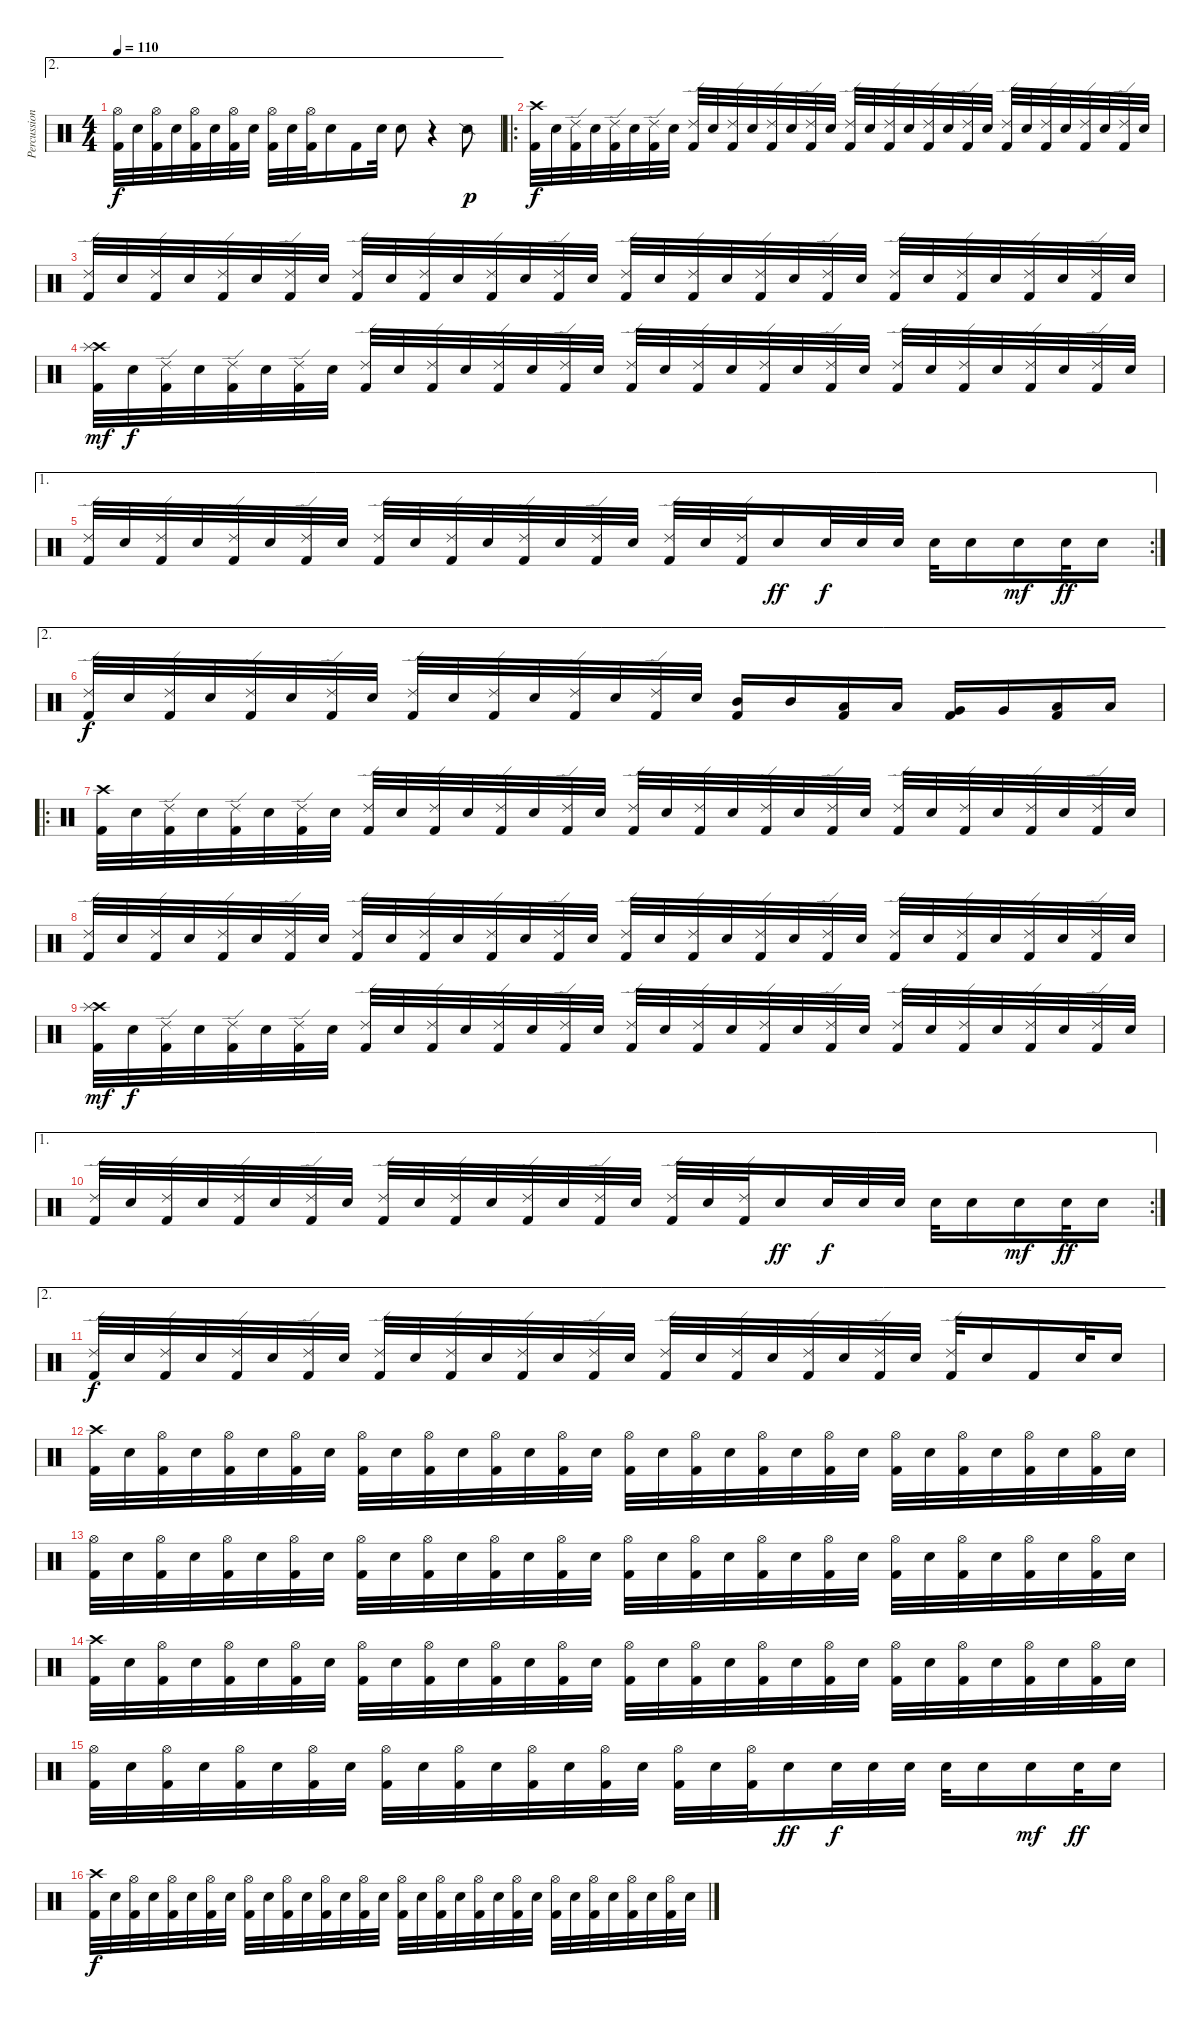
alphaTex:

\track ("Percussion" "Percussion") {instrument percussion}
\staff {score}
\articulation defaults
\ae 2
\ts (4 4)
\tempo 110
\clef neutral
\ks c
("Hi-Hat (open)" "Kick (hit) 2").32{dy f} "Snare (hit) 2".32 ("Hi-Hat (open)" "Kick (hit) 2").32 "Snare (hit) 2".32 ("Hi-Hat (open)" "Kick (hit) 2").32 "Snare (hit) 2".32 ("Hi-Hat (open)" "Kick (hit) 2").32 "Snare (hit) 2".32 ("Hi-Hat (open)" "Kick (hit) 2").32 "Snare (hit) 2".32 ("Hi-Hat (open)" "Kick (hit) 2").32 "Snare (hit) 2".16 "Kick (hit) 2".16 "Snare (hit) 2".32 "Snare (hit) 2".8 r.4 "Snare (side stick) 2".8{dy p} |
\ro
("Crash high (hit)" "Kick (hit) 2").32{dy f} "Snare (hit) 2".32 ("Ride (edge) 2" "Kick (hit) 2").32 "Snare (hit) 2".32 ("Ride (edge) 2" "Kick (hit) 2").32 "Snare (hit) 2".32 ("Ride (edge) 2" "Kick (hit) 2").32 "Snare (hit) 2".32 ("Ride (edge) 2" "Kick (hit) 2").32 "Snare (hit) 2".32 ("Ride (edge) 2" "Kick (hit) 2").32 "Snare (hit) 2".32 ("Ride (edge) 2" "Kick (hit) 2").32 "Snare (hit) 2".32 ("Ride (edge) 2" "Kick (hit) 2").32 "Snare (hit) 2".32 ("Ride (edge) 2" "Kick (hit) 2").32 "Snare (hit) 2".32 ("Ride (edge) 2" "Kick (hit) 2").32 "Snare (hit) 2".32 ("Ride (edge) 2" "Kick (hit) 2").32 "Snare (hit) 2".32 ("Ride (edge) 2" "Kick (hit) 2").32 "Snare (hit) 2".32 ("Ride (edge) 2" "Kick (hit) 2").32 "Snare (hit) 2".32 ("Ride (edge) 2" "Kick (hit) 2").32 "Snare (hit) 2".32 ("Ride (edge) 2" "Kick (hit) 2").32 "Snare (hit) 2".32 ("Ride (edge) 2" "Kick (hit) 2").32 "Snare (hit) 2".32 |
("Ride (edge) 2" "Kick (hit) 2").32 "Snare (hit) 2".32 ("Ride (edge) 2" "Kick (hit) 2").32 "Snare (hit) 2".32 ("Ride (edge) 2" "Kick (hit) 2").32 "Snare (hit) 2".32 ("Ride (edge) 2" "Kick (hit) 2").32 "Snare (hit) 2".32 ("Ride (edge) 2" "Kick (hit) 2").32 "Snare (hit) 2".32 ("Ride (edge) 2" "Kick (hit) 2").32 "Snare (hit) 2".32 ("Ride (edge) 2" "Kick (hit) 2").32 "Snare (hit) 2".32 ("Ride (edge) 2" "Kick (hit) 2").32 "Snare (hit) 2".32 ("Ride (edge) 2" "Kick (hit) 2").32 "Snare (hit) 2".32 ("Ride (edge) 2" "Kick (hit) 2").32 "Snare (hit) 2".32 ("Ride (edge) 2" "Kick (hit) 2").32 "Snare (hit) 2".32 ("Ride (edge) 2" "Kick (hit) 2").32 "Snare (hit) 2".32 ("Ride (edge) 2" "Kick (hit) 2").32 "Snare (hit) 2".32 ("Ride (edge) 2" "Kick (hit) 2").32 "Snare (hit) 2".32 ("Ride (edge) 2" "Kick (hit) 2").32 "Snare (hit) 2".32 ("Ride (edge) 2" "Kick (hit) 2").32 "Snare (hit) 2".32 |
("Crash high (hit)" "Splash (hit)" "Kick (hit) 2").32{dy mf} "Snare (hit) 2".32{dy f} ("Ride (edge) 2" "Kick (hit) 2").32 "Snare (hit) 2".32 ("Ride (edge) 2" "Kick (hit) 2").32 "Snare (hit) 2".32 ("Ride (edge) 2" "Kick (hit) 2").32 "Snare (hit) 2".32 ("Ride (edge) 2" "Kick (hit) 2").32 "Snare (hit) 2".32 ("Ride (edge) 2" "Kick (hit) 2").32 "Snare (hit) 2".32 ("Ride (edge) 2" "Kick (hit) 2").32 "Snare (hit) 2".32 ("Ride (edge) 2" "Kick (hit) 2").32 "Snare (hit) 2".32 ("Ride (edge) 2" "Kick (hit) 2").32 "Snare (hit) 2".32 ("Ride (edge) 2" "Kick (hit) 2").32 "Snare (hit) 2".32 ("Ride (edge) 2" "Kick (hit) 2").32 "Snare (hit) 2".32 ("Ride (edge) 2" "Kick (hit) 2").32 "Snare (hit) 2".32 ("Ride (edge) 2" "Kick (hit) 2").32 "Snare (hit) 2".32 ("Ride (edge) 2" "Kick (hit) 2").32 "Snare (hit) 2".32 ("Ride (edge) 2" "Kick (hit) 2").32 "Snare (hit) 2".32 ("Ride (edge) 2" "Kick (hit) 2").32 "Snare (hit) 2".32 |
\ae 1
\rc 2
("Ride (edge) 2" "Kick (hit) 2").32 "Snare (hit) 2".32 ("Ride (edge) 2" "Kick (hit) 2").32 "Snare (hit) 2".32 ("Ride (edge) 2" "Kick (hit) 2").32 "Snare (hit) 2".32 ("Ride (edge) 2" "Kick (hit) 2").32 "Snare (hit) 2".32 ("Ride (edge) 2" "Kick (hit) 2").32 "Snare (hit) 2".32 ("Ride (edge) 2" "Kick (hit) 2").32 "Snare (hit) 2".32 ("Ride (edge) 2" "Kick (hit) 2").32 "Snare (hit) 2".32 ("Ride (edge) 2" "Kick (hit) 2").32 "Snare (hit) 2".32 ("Ride (edge) 2" "Kick (hit) 2").32 "Snare (hit) 2".32 ("Ride (edge) 2" "Kick (hit) 2").32 "Snare (hit) 2".16{dy ff} "Snare (hit) 2".32{dy f} "Snare (hit) 2".32 "Snare (hit) 2".32 "Snare (hit) 2".32 "Snare (hit) 2".16 "Snare (hit) 2".16{dy mf} "Snare (hit) 2".32{dy ff} "Snare (hit) 2".16 |
\ae 2
("Ride (edge) 2" "Kick (hit) 2").32{dy f} "Snare (hit) 2".32 ("Ride (edge) 2" "Kick (hit) 2").32 "Snare (hit) 2".32 ("Ride (edge) 2" "Kick (hit) 2").32 "Snare (hit) 2".32 ("Ride (edge) 2" "Kick (hit) 2").32 "Snare (hit) 2".32 ("Ride (edge) 2" "Kick (hit) 2").32 "Snare (hit) 2".32 ("Ride (edge) 2" "Kick (hit) 2").32 "Snare (hit) 2".32 ("Ride (edge) 2" "Kick (hit) 2").32 "Snare (hit) 2".32 ("Ride (edge) 2" "Kick (hit) 2").32 "Snare (hit) 2".32 ("Mid Tom (hit)" "Kick (hit) 2").16 "Mid Tom (hit)".16 ("Low Tom (hit)" "Kick (hit) 2").16 "Low Tom (hit)".16 ("Very Low Tom (hit)" "Kick (hit) 2").16 "Very Low Tom (hit)".16 ("Low Floor Tom (hit)" "Kick (hit) 2").16 "Low Floor Tom (hit)".16 |
\ro
("Crash high (hit)" "Kick (hit) 2").32 "Snare (hit) 2".32 ("Ride (edge) 2" "Kick (hit) 2").32 "Snare (hit) 2".32 ("Ride (edge) 2" "Kick (hit) 2").32 "Snare (hit) 2".32 ("Ride (edge) 2" "Kick (hit) 2").32 "Snare (hit) 2".32 ("Ride (edge) 2" "Kick (hit) 2").32 "Snare (hit) 2".32 ("Ride (edge) 2" "Kick (hit) 2").32 "Snare (hit) 2".32 ("Ride (edge) 2" "Kick (hit) 2").32 "Snare (hit) 2".32 ("Ride (edge) 2" "Kick (hit) 2").32 "Snare (hit) 2".32 ("Ride (edge) 2" "Kick (hit) 2").32 "Snare (hit) 2".32 ("Ride (edge) 2" "Kick (hit) 2").32 "Snare (hit) 2".32 ("Ride (edge) 2" "Kick (hit) 2").32 "Snare (hit) 2".32 ("Ride (edge) 2" "Kick (hit) 2").32 "Snare (hit) 2".32 ("Ride (edge) 2" "Kick (hit) 2").32 "Snare (hit) 2".32 ("Ride (edge) 2" "Kick (hit) 2").32 "Snare (hit) 2".32 ("Ride (edge) 2" "Kick (hit) 2").32 "Snare (hit) 2".32 ("Ride (edge) 2" "Kick (hit) 2").32 "Snare (hit) 2".32 |
("Ride (edge) 2" "Kick (hit) 2").32 "Snare (hit) 2".32 ("Ride (edge) 2" "Kick (hit) 2").32 "Snare (hit) 2".32 ("Ride (edge) 2" "Kick (hit) 2").32 "Snare (hit) 2".32 ("Ride (edge) 2" "Kick (hit) 2").32 "Snare (hit) 2".32 ("Ride (edge) 2" "Kick (hit) 2").32 "Snare (hit) 2".32 ("Ride (edge) 2" "Kick (hit) 2").32 "Snare (hit) 2".32 ("Ride (edge) 2" "Kick (hit) 2").32 "Snare (hit) 2".32 ("Ride (edge) 2" "Kick (hit) 2").32 "Snare (hit) 2".32 ("Ride (edge) 2" "Kick (hit) 2").32 "Snare (hit) 2".32 ("Ride (edge) 2" "Kick (hit) 2").32 "Snare (hit) 2".32 ("Ride (edge) 2" "Kick (hit) 2").32 "Snare (hit) 2".32 ("Ride (edge) 2" "Kick (hit) 2").32 "Snare (hit) 2".32 ("Ride (edge) 2" "Kick (hit) 2").32 "Snare (hit) 2".32 ("Ride (edge) 2" "Kick (hit) 2").32 "Snare (hit) 2".32 ("Ride (edge) 2" "Kick (hit) 2").32 "Snare (hit) 2".32 ("Ride (edge) 2" "Kick (hit) 2").32 "Snare (hit) 2".32 |
("Crash high (hit)" "Splash (hit)" "Kick (hit) 2").32{dy mf} "Snare (hit) 2".32{dy f} ("Ride (edge) 2" "Kick (hit) 2").32 "Snare (hit) 2".32 ("Ride (edge) 2" "Kick (hit) 2").32 "Snare (hit) 2".32 ("Ride (edge) 2" "Kick (hit) 2").32 "Snare (hit) 2".32 ("Ride (edge) 2" "Kick (hit) 2").32 "Snare (hit) 2".32 ("Ride (edge) 2" "Kick (hit) 2").32 "Snare (hit) 2".32 ("Ride (edge) 2" "Kick (hit) 2").32 "Snare (hit) 2".32 ("Ride (edge) 2" "Kick (hit) 2").32 "Snare (hit) 2".32 ("Ride (edge) 2" "Kick (hit) 2").32 "Snare (hit) 2".32 ("Ride (edge) 2" "Kick (hit) 2").32 "Snare (hit) 2".32 ("Ride (edge) 2" "Kick (hit) 2").32 "Snare (hit) 2".32 ("Ride (edge) 2" "Kick (hit) 2").32 "Snare (hit) 2".32 ("Ride (edge) 2" "Kick (hit) 2").32 "Snare (hit) 2".32 ("Ride (edge) 2" "Kick (hit) 2").32 "Snare (hit) 2".32 ("Ride (edge) 2" "Kick (hit) 2").32 "Snare (hit) 2".32 ("Ride (edge) 2" "Kick (hit) 2").32 "Snare (hit) 2".32 |
\ae 1
\rc 2
("Ride (edge) 2" "Kick (hit) 2").32 "Snare (hit) 2".32 ("Ride (edge) 2" "Kick (hit) 2").32 "Snare (hit) 2".32 ("Ride (edge) 2" "Kick (hit) 2").32 "Snare (hit) 2".32 ("Ride (edge) 2" "Kick (hit) 2").32 "Snare (hit) 2".32 ("Ride (edge) 2" "Kick (hit) 2").32 "Snare (hit) 2".32 ("Ride (edge) 2" "Kick (hit) 2").32 "Snare (hit) 2".32 ("Ride (edge) 2" "Kick (hit) 2").32 "Snare (hit) 2".32 ("Ride (edge) 2" "Kick (hit) 2").32 "Snare (hit) 2".32 ("Ride (edge) 2" "Kick (hit) 2").32 "Snare (hit) 2".32 ("Ride (edge) 2" "Kick (hit) 2").32 "Snare (hit) 2".16{dy ff} "Snare (hit) 2".32{dy f} "Snare (hit) 2".32 "Snare (hit) 2".32 "Snare (hit) 2".32 "Snare (hit) 2".16 "Snare (hit) 2".16{dy mf} "Snare (hit) 2".32{dy ff} "Snare (hit) 2".16 |
\ae 2
("Ride (edge) 2" "Kick (hit) 2").32{dy f} "Snare (hit) 2".32 ("Ride (edge) 2" "Kick (hit) 2").32 "Snare (hit) 2".32 ("Ride (edge) 2" "Kick (hit) 2").32 "Snare (hit) 2".32 ("Ride (edge) 2" "Kick (hit) 2").32 "Snare (hit) 2".32 ("Ride (edge) 2" "Kick (hit) 2").32 "Snare (hit) 2".32 ("Ride (edge) 2" "Kick (hit) 2").32 "Snare (hit) 2".32 ("Ride (edge) 2" "Kick (hit) 2").32 "Snare (hit) 2".32 ("Ride (edge) 2" "Kick (hit) 2").32 "Snare (hit) 2".32 ("Ride (edge) 2" "Kick (hit) 2").32 "Snare (hit) 2".32 ("Ride (edge) 2" "Kick (hit) 2").32 "Snare (hit) 2".32 ("Ride (edge) 2" "Kick (hit) 2").32 "Snare (hit) 2".32 ("Ride (edge) 2" "Kick (hit) 2").32 "Snare (hit) 2".32 ("Ride (edge) 2" "Kick (hit) 2").32 "Snare (hit) 2".16 "Kick (hit) 2".16 "Snare (hit) 2".32 "Snare (hit) 2".16 |
("Crash high (hit)" "Kick (hit) 2").32 "Snare (hit) 2".32 ("Hi-Hat (open)" "Kick (hit) 2").32 "Snare (hit) 2".32 ("Hi-Hat (open)" "Kick (hit) 2").32 "Snare (hit) 2".32 ("Hi-Hat (open)" "Kick (hit) 2").32 "Snare (hit) 2".32 ("Hi-Hat (open)" "Kick (hit) 2").32 "Snare (hit) 2".32 ("Hi-Hat (open)" "Kick (hit) 2").32 "Snare (hit) 2".32 ("Hi-Hat (open)" "Kick (hit) 2").32 "Snare (hit) 2".32 ("Hi-Hat (open)" "Kick (hit) 2").32 "Snare (hit) 2".32 ("Hi-Hat (open)" "Kick (hit) 2").32 "Snare (hit) 2".32 ("Hi-Hat (open)" "Kick (hit) 2").32 "Snare (hit) 2".32 ("Hi-Hat (open)" "Kick (hit) 2").32 "Snare (hit) 2".32 ("Hi-Hat (open)" "Kick (hit) 2").32 "Snare (hit) 2".32 ("Hi-Hat (open)" "Kick (hit) 2").32 "Snare (hit) 2".32 ("Hi-Hat (open)" "Kick (hit) 2").32 "Snare (hit) 2".32 ("Hi-Hat (open)" "Kick (hit) 2").32 "Snare (hit) 2".32 ("Hi-Hat (open)" "Kick (hit) 2").32 "Snare (hit) 2".32 |
("Hi-Hat (open)" "Kick (hit) 2").32 "Snare (hit) 2".32 ("Hi-Hat (open)" "Kick (hit) 2").32 "Snare (hit) 2".32 ("Hi-Hat (open)" "Kick (hit) 2").32 "Snare (hit) 2".32 ("Hi-Hat (open)" "Kick (hit) 2").32 "Snare (hit) 2".32 ("Hi-Hat (open)" "Kick (hit) 2").32 "Snare (hit) 2".32 ("Hi-Hat (open)" "Kick (hit) 2").32 "Snare (hit) 2".32 ("Hi-Hat (open)" "Kick (hit) 2").32 "Snare (hit) 2".32 ("Hi-Hat (open)" "Kick (hit) 2").32 "Snare (hit) 2".32 ("Hi-Hat (open)" "Kick (hit) 2").32 "Snare (hit) 2".32 ("Hi-Hat (open)" "Kick (hit) 2").32 "Snare (hit) 2".32 ("Hi-Hat (open)" "Kick (hit) 2").32 "Snare (hit) 2".32 ("Hi-Hat (open)" "Kick (hit) 2").32 "Snare (hit) 2".32 ("Hi-Hat (open)" "Kick (hit) 2").32 "Snare (hit) 2".32 ("Hi-Hat (open)" "Kick (hit) 2").32 "Snare (hit) 2".32 ("Hi-Hat (open)" "Kick (hit) 2").32 "Snare (hit) 2".32 ("Hi-Hat (open)" "Kick (hit) 2").32 "Snare (hit) 2".32 |
("Crash high (hit)" "Kick (hit) 2").32 "Snare (hit) 2".32 ("Hi-Hat (open)" "Kick (hit) 2").32 "Snare (hit) 2".32 ("Hi-Hat (open)" "Kick (hit) 2").32 "Snare (hit) 2".32 ("Hi-Hat (open)" "Kick (hit) 2").32 "Snare (hit) 2".32 ("Hi-Hat (open)" "Kick (hit) 2").32 "Snare (hit) 2".32 ("Hi-Hat (open)" "Kick (hit) 2").32 "Snare (hit) 2".32 ("Hi-Hat (open)" "Kick (hit) 2").32 "Snare (hit) 2".32 ("Hi-Hat (open)" "Kick (hit) 2").32 "Snare (hit) 2".32 ("Hi-Hat (open)" "Kick (hit) 2").32 "Snare (hit) 2".32 ("Hi-Hat (open)" "Kick (hit) 2").32 "Snare (hit) 2".32 ("Hi-Hat (open)" "Kick (hit) 2").32 "Snare (hit) 2".32 ("Hi-Hat (open)" "Kick (hit) 2").32 "Snare (hit) 2".32 ("Hi-Hat (open)" "Kick (hit) 2").32 "Snare (hit) 2".32 ("Hi-Hat (open)" "Kick (hit) 2").32 "Snare (hit) 2".32 ("Hi-Hat (open)" "Kick (hit) 2").32 "Snare (hit) 2".32 ("Hi-Hat (open)" "Kick (hit) 2").32 "Snare (hit) 2".32 |
("Hi-Hat (open)" "Kick (hit) 2").32 "Snare (hit) 2".32 ("Hi-Hat (open)" "Kick (hit) 2").32 "Snare (hit) 2".32 ("Hi-Hat (open)" "Kick (hit) 2").32 "Snare (hit) 2".32 ("Hi-Hat (open)" "Kick (hit) 2").32 "Snare (hit) 2".32 ("Hi-Hat (open)" "Kick (hit) 2").32 "Snare (hit) 2".32 ("Hi-Hat (open)" "Kick (hit) 2").32 "Snare (hit) 2".32 ("Hi-Hat (open)" "Kick (hit) 2").32 "Snare (hit) 2".32 ("Hi-Hat (open)" "Kick (hit) 2").32 "Snare (hit) 2".32 ("Hi-Hat (open)" "Kick (hit) 2").32 "Snare (hit) 2".32 ("Hi-Hat (open)" "Kick (hit) 2").32 "Snare (hit) 2".16{dy ff} "Snare (hit) 2".32{dy f} "Snare (hit) 2".32 "Snare (hit) 2".32 "Snare (hit) 2".32 "Snare (hit) 2".16 "Snare (hit) 2".16{dy mf} "Snare (hit) 2".32{dy ff} "Snare (hit) 2".16 |
("Crash high (hit)" "Kick (hit) 2").32{dy f} "Snare (hit) 2".32 ("Hi-Hat (open)" "Kick (hit) 2").32 "Snare (hit) 2".32 ("Hi-Hat (open)" "Kick (hit) 2").32 "Snare (hit) 2".32 ("Hi-Hat (open)" "Kick (hit) 2").32 "Snare (hit) 2".32 ("Hi-Hat (open)" "Kick (hit) 2").32 "Snare (hit) 2".32 ("Hi-Hat (open)" "Kick (hit) 2").32 "Snare (hit) 2".32 ("Hi-Hat (open)" "Kick (hit) 2").32 "Snare (hit) 2".32 ("Hi-Hat (open)" "Kick (hit) 2").32 "Snare (hit) 2".32 ("Hi-Hat (open)" "Kick (hit) 2").32 "Snare (hit) 2".32 ("Hi-Hat (open)" "Kick (hit) 2").32 "Snare (hit) 2".32 ("Hi-Hat (open)" "Kick (hit) 2").32 "Snare (hit) 2".32 ("Hi-Hat (open)" "Kick (hit) 2").32 "Snare (hit) 2".32 ("Hi-Hat (open)" "Kick (hit) 2").32 "Snare (hit) 2".32 ("Hi-Hat (open)" "Kick (hit) 2").32 "Snare (hit) 2".32 ("Hi-Hat (open)" "Kick (hit) 2").32 "Snare (hit) 2".32 ("Hi-Hat (open)" "Kick (hit) 2").32 "Snare (hit) 2".32
